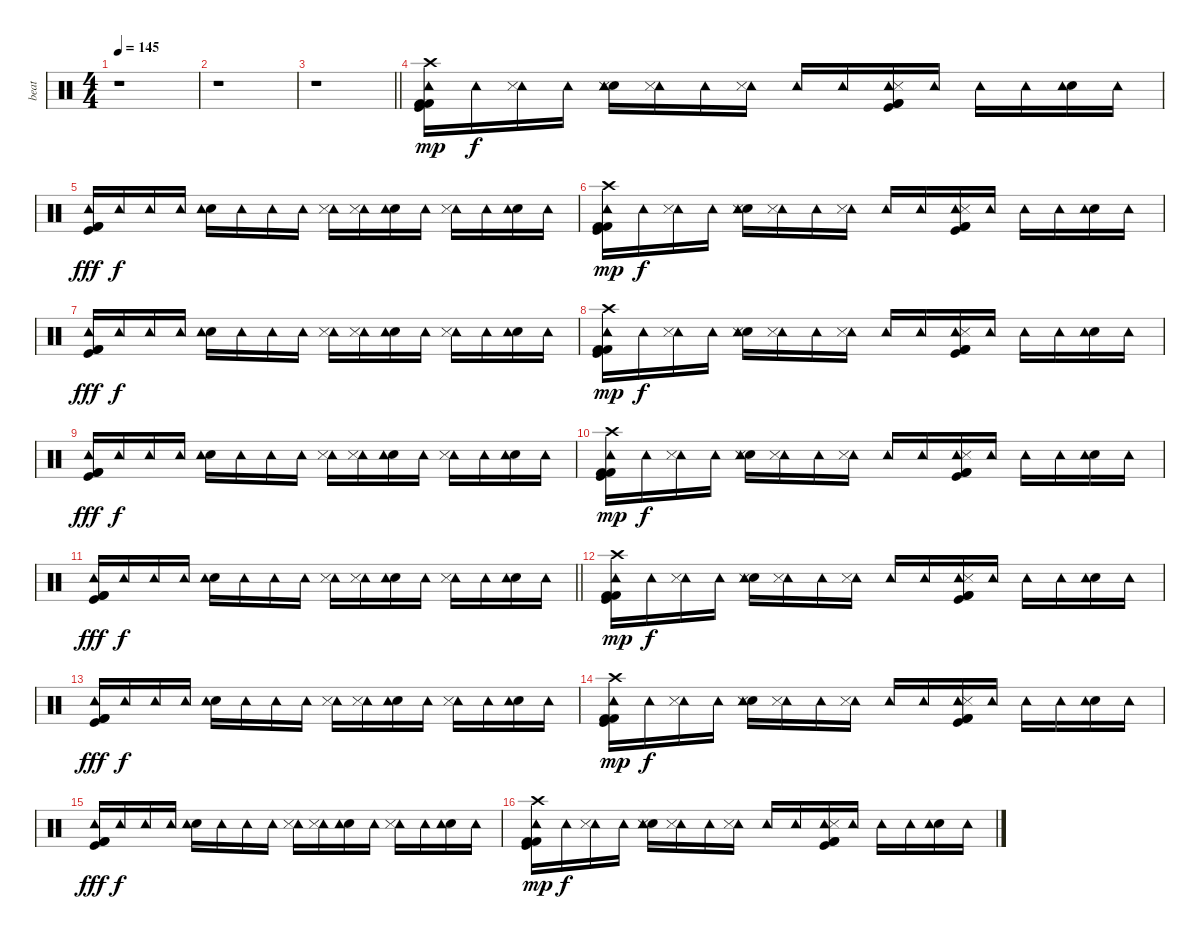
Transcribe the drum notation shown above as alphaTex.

\track ("beat" "beat") {instrument percussion}
\staff {score}
\articulation defaults
\ts (4 4)
\tempo 145
\clef neutral
\ks c
r.1{dy f} |
r.1 |
\barLineRight lightlight
r.1 |
("Kick (hit)" "Kick (hit) 2" "Kick (hit) 2" "Tambourine (hit)" "Crash high (hit)").16{dy mp} "Tambourine (hit)".16{dy f} ("Tambourine (hit)" "Snare (side stick) 3").16 "Tambourine (hit)".16 ("Electric Snare (hit)" "Tambourine (hit)" "Snare (side stick) 3").16 ("Tambourine (hit)" "Snare (side stick) 3").16 "Tambourine (hit)".16 ("Tambourine (hit)" "Snare (side stick) 3").16 "Tambourine (hit)".16 "Tambourine (hit)".16 ("Kick (hit)" "Kick (hit) 2" "Kick (hit) 2" "Tambourine (hit)" "Snare (side stick) 3").16 "Tambourine (hit)".16 "Tambourine (hit)".16 "Tambourine (hit)".16 ("Electric Snare (hit)" "Tambourine (hit)").16 "Tambourine (hit)".16 |
("Kick (hit)" "Kick (hit) 2" "Kick (hit) 2" "Tambourine (hit)").16{dy fff} "Tambourine (hit)".16{dy f} "Tambourine (hit)".16 "Tambourine (hit)".16 ("Electric Snare (hit)" "Tambourine (hit)").16 "Tambourine (hit)".16 "Tambourine (hit)".16 "Tambourine (hit)".16 ("Tambourine (hit)" "Snare (side stick) 3").16 ("Tambourine (hit)" "Snare (side stick) 3").16 ("Electric Snare (hit)" "Tambourine (hit)").16 "Tambourine (hit)".16 ("Tambourine (hit)" "Snare (side stick) 3").16 "Tambourine (hit)".16 ("Electric Snare (hit)" "Tambourine (hit)").16 "Tambourine (hit)".16 |
("Kick (hit)" "Kick (hit) 2" "Kick (hit) 2" "Tambourine (hit)" "Crash high (hit)").16{dy mp} "Tambourine (hit)".16{dy f} ("Tambourine (hit)" "Snare (side stick) 3").16 "Tambourine (hit)".16 ("Electric Snare (hit)" "Tambourine (hit)" "Snare (side stick) 3").16 ("Tambourine (hit)" "Snare (side stick) 3").16 "Tambourine (hit)".16 ("Tambourine (hit)" "Snare (side stick) 3").16 "Tambourine (hit)".16 "Tambourine (hit)".16 ("Kick (hit)" "Kick (hit) 2" "Kick (hit) 2" "Tambourine (hit)" "Snare (side stick) 3").16 "Tambourine (hit)".16 "Tambourine (hit)".16 "Tambourine (hit)".16 ("Electric Snare (hit)" "Tambourine (hit)").16 "Tambourine (hit)".16 |
("Kick (hit)" "Kick (hit) 2" "Kick (hit) 2" "Tambourine (hit)").16{dy fff} "Tambourine (hit)".16{dy f} "Tambourine (hit)".16 "Tambourine (hit)".16 ("Electric Snare (hit)" "Tambourine (hit)").16 "Tambourine (hit)".16 "Tambourine (hit)".16 "Tambourine (hit)".16 ("Tambourine (hit)" "Snare (side stick) 3").16 ("Tambourine (hit)" "Snare (side stick) 3").16 ("Electric Snare (hit)" "Tambourine (hit)").16 "Tambourine (hit)".16 ("Tambourine (hit)" "Snare (side stick) 3").16 "Tambourine (hit)".16 ("Electric Snare (hit)" "Tambourine (hit)").16 "Tambourine (hit)".16 |
("Kick (hit)" "Kick (hit) 2" "Kick (hit) 2" "Tambourine (hit)" "Crash high (hit)").16{dy mp} "Tambourine (hit)".16{dy f} ("Tambourine (hit)" "Snare (side stick) 3").16 "Tambourine (hit)".16 ("Electric Snare (hit)" "Tambourine (hit)" "Snare (side stick) 3").16 ("Tambourine (hit)" "Snare (side stick) 3").16 "Tambourine (hit)".16 ("Tambourine (hit)" "Snare (side stick) 3").16 "Tambourine (hit)".16 "Tambourine (hit)".16 ("Kick (hit)" "Kick (hit) 2" "Kick (hit) 2" "Tambourine (hit)" "Snare (side stick) 3").16 "Tambourine (hit)".16 "Tambourine (hit)".16 "Tambourine (hit)".16 ("Electric Snare (hit)" "Tambourine (hit)").16 "Tambourine (hit)".16 |
("Kick (hit)" "Kick (hit) 2" "Kick (hit) 2" "Tambourine (hit)").16{dy fff} "Tambourine (hit)".16{dy f} "Tambourine (hit)".16 "Tambourine (hit)".16 ("Electric Snare (hit)" "Tambourine (hit)").16 "Tambourine (hit)".16 "Tambourine (hit)".16 "Tambourine (hit)".16 ("Tambourine (hit)" "Snare (side stick) 3").16 ("Tambourine (hit)" "Snare (side stick) 3").16 ("Electric Snare (hit)" "Tambourine (hit)").16 "Tambourine (hit)".16 ("Tambourine (hit)" "Snare (side stick) 3").16 "Tambourine (hit)".16 ("Electric Snare (hit)" "Tambourine (hit)").16 "Tambourine (hit)".16 |
("Kick (hit)" "Kick (hit) 2" "Kick (hit) 2" "Tambourine (hit)" "Crash high (hit)").16{dy mp} "Tambourine (hit)".16{dy f} ("Tambourine (hit)" "Snare (side stick) 3").16 "Tambourine (hit)".16 ("Electric Snare (hit)" "Tambourine (hit)" "Snare (side stick) 3").16 ("Tambourine (hit)" "Snare (side stick) 3").16 "Tambourine (hit)".16 ("Tambourine (hit)" "Snare (side stick) 3").16 "Tambourine (hit)".16 "Tambourine (hit)".16 ("Kick (hit)" "Kick (hit) 2" "Kick (hit) 2" "Tambourine (hit)" "Snare (side stick) 3").16 "Tambourine (hit)".16 "Tambourine (hit)".16 "Tambourine (hit)".16 ("Electric Snare (hit)" "Tambourine (hit)").16 "Tambourine (hit)".16 |
\barLineRight lightlight
("Kick (hit)" "Kick (hit) 2" "Kick (hit) 2" "Tambourine (hit)").16{dy fff} "Tambourine (hit)".16{dy f} "Tambourine (hit)".16 "Tambourine (hit)".16 ("Electric Snare (hit)" "Tambourine (hit)").16 "Tambourine (hit)".16 "Tambourine (hit)".16 "Tambourine (hit)".16 ("Tambourine (hit)" "Snare (side stick) 3").16 ("Tambourine (hit)" "Snare (side stick) 3").16 ("Electric Snare (hit)" "Tambourine (hit)").16 "Tambourine (hit)".16 ("Tambourine (hit)" "Snare (side stick) 3").16 "Tambourine (hit)".16 ("Electric Snare (hit)" "Tambourine (hit)").16 "Tambourine (hit)".16 |
("Kick (hit)" "Kick (hit) 2" "Kick (hit) 2" "Tambourine (hit)" "Crash high (hit)").16{dy mp} "Tambourine (hit)".16{dy f} ("Tambourine (hit)" "Snare (side stick) 3").16 "Tambourine (hit)".16 ("Electric Snare (hit)" "Tambourine (hit)" "Snare (side stick) 3").16 ("Tambourine (hit)" "Snare (side stick) 3").16 "Tambourine (hit)".16 ("Tambourine (hit)" "Snare (side stick) 3").16 "Tambourine (hit)".16 "Tambourine (hit)".16 ("Kick (hit)" "Kick (hit) 2" "Kick (hit) 2" "Tambourine (hit)" "Snare (side stick) 3").16 "Tambourine (hit)".16 "Tambourine (hit)".16 "Tambourine (hit)".16 ("Electric Snare (hit)" "Tambourine (hit)").16 "Tambourine (hit)".16 |
("Kick (hit)" "Kick (hit) 2" "Kick (hit) 2" "Tambourine (hit)").16{dy fff} "Tambourine (hit)".16{dy f} "Tambourine (hit)".16 "Tambourine (hit)".16 ("Electric Snare (hit)" "Tambourine (hit)").16 "Tambourine (hit)".16 "Tambourine (hit)".16 "Tambourine (hit)".16 ("Tambourine (hit)" "Snare (side stick) 3").16 ("Tambourine (hit)" "Snare (side stick) 3").16 ("Electric Snare (hit)" "Tambourine (hit)").16 "Tambourine (hit)".16 ("Tambourine (hit)" "Snare (side stick) 3").16 "Tambourine (hit)".16 ("Electric Snare (hit)" "Tambourine (hit)").16 "Tambourine (hit)".16 |
("Kick (hit)" "Kick (hit) 2" "Kick (hit) 2" "Tambourine (hit)" "Crash high (hit)").16{dy mp} "Tambourine (hit)".16{dy f} ("Tambourine (hit)" "Snare (side stick) 3").16 "Tambourine (hit)".16 ("Electric Snare (hit)" "Tambourine (hit)" "Snare (side stick) 3").16 ("Tambourine (hit)" "Snare (side stick) 3").16 "Tambourine (hit)".16 ("Tambourine (hit)" "Snare (side stick) 3").16 "Tambourine (hit)".16 "Tambourine (hit)".16 ("Kick (hit)" "Kick (hit) 2" "Kick (hit) 2" "Tambourine (hit)" "Snare (side stick) 3").16 "Tambourine (hit)".16 "Tambourine (hit)".16 "Tambourine (hit)".16 ("Electric Snare (hit)" "Tambourine (hit)").16 "Tambourine (hit)".16 |
("Kick (hit)" "Kick (hit) 2" "Kick (hit) 2" "Tambourine (hit)").16{dy fff} "Tambourine (hit)".16{dy f} "Tambourine (hit)".16 "Tambourine (hit)".16 ("Electric Snare (hit)" "Tambourine (hit)").16 "Tambourine (hit)".16 "Tambourine (hit)".16 "Tambourine (hit)".16 ("Tambourine (hit)" "Snare (side stick) 3").16 ("Tambourine (hit)" "Snare (side stick) 3").16 ("Electric Snare (hit)" "Tambourine (hit)").16 "Tambourine (hit)".16 ("Tambourine (hit)" "Snare (side stick) 3").16 "Tambourine (hit)".16 ("Electric Snare (hit)" "Tambourine (hit)").16 "Tambourine (hit)".16 |
("Kick (hit)" "Kick (hit) 2" "Kick (hit) 2" "Tambourine (hit)" "Crash high (hit)").16{dy mp} "Tambourine (hit)".16{dy f} ("Tambourine (hit)" "Snare (side stick) 3").16 "Tambourine (hit)".16 ("Electric Snare (hit)" "Tambourine (hit)" "Snare (side stick) 3").16 ("Tambourine (hit)" "Snare (side stick) 3").16 "Tambourine (hit)".16 ("Tambourine (hit)" "Snare (side stick) 3").16 "Tambourine (hit)".16 "Tambourine (hit)".16 ("Kick (hit)" "Kick (hit) 2" "Kick (hit) 2" "Tambourine (hit)" "Snare (side stick) 3").16 "Tambourine (hit)".16 "Tambourine (hit)".16 "Tambourine (hit)".16 ("Electric Snare (hit)" "Tambourine (hit)").16 "Tambourine (hit)".16
